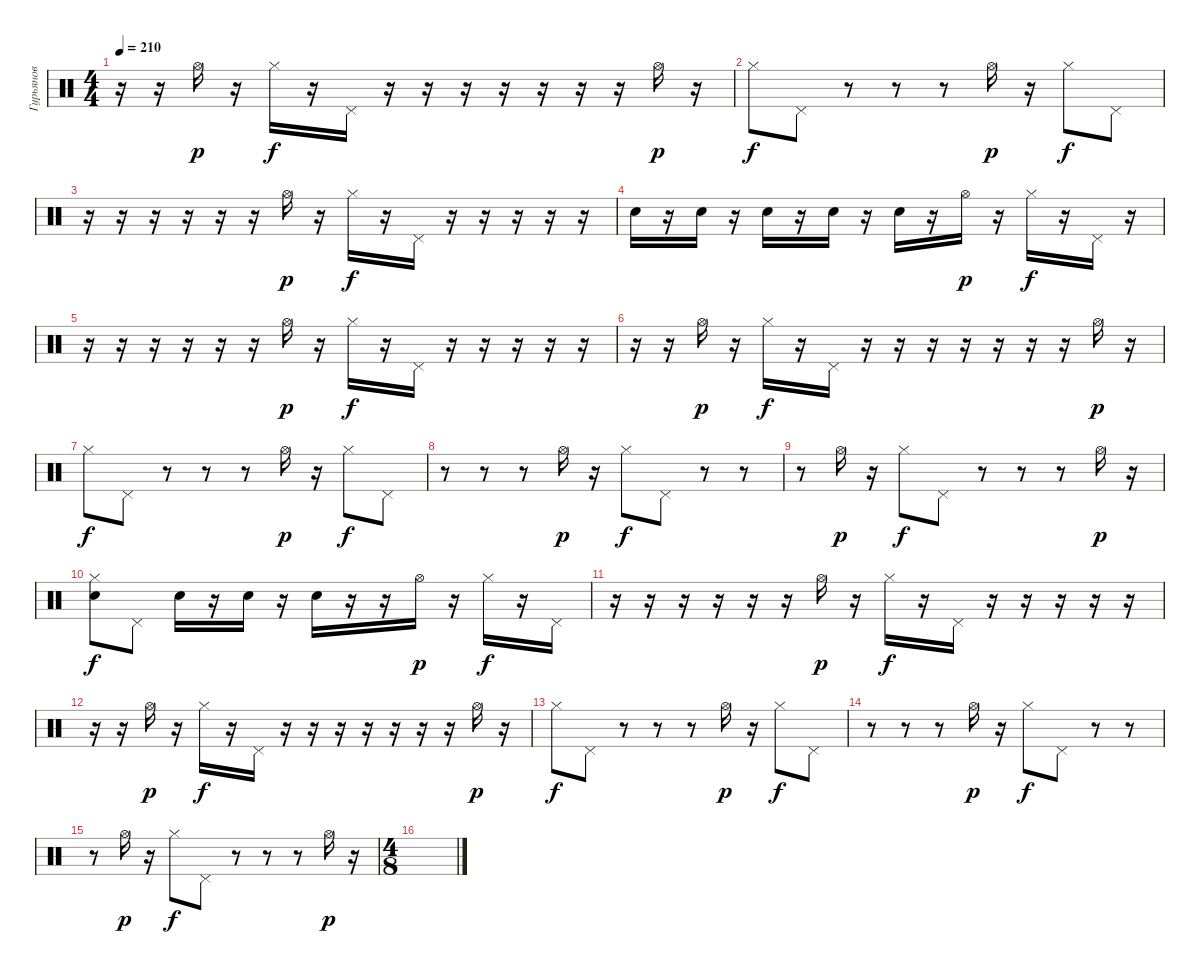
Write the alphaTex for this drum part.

\track ("Гурьянов" "Гурьянов") {instrument percussion}
\staff {score}
\articulation defaults
\ts (4 4)
\tempo 210
\clef neutral
\ks c
r.16{dy f} r.16 "Hi-Hat (open)".16{dy p} r.16 "Hi-Hat (closed)".16{dy f} r.16 "Pedal Hi-Hat (hit)".16 r.16 r.16 r.16 r.16 r.16 r.16 r.16 "Hi-Hat (open)".16{dy p} r.16 |
"Hi-Hat (closed)".8{dy f} "Pedal Hi-Hat (hit)".8 r.8 r.8 r.8 "Hi-Hat (open)".16{dy p} r.16 "Hi-Hat (closed)".8{dy f} "Pedal Hi-Hat (hit)".8 |
r.16 r.16 r.16 r.16 r.16 r.16 "Hi-Hat (open)".16{dy p} r.16 "Hi-Hat (closed)".16{dy f} r.16 "Pedal Hi-Hat (hit)".16 r.16 r.16 r.16 r.16 r.16 |
"Snare (hit) 2".16 r.16 "Snare (hit) 2".16 r.16 "Snare (hit) 2".16 r.16 "Snare (hit) 2".16 r.16 "Snare (hit) 2".16 r.16 "Hi-Hat (open)".16{dy p} r.16 "Hi-Hat (closed)".16{dy f} r.16 "Pedal Hi-Hat (hit)".16 r.16 |
r.16 r.16 r.16 r.16 r.16 r.16 "Hi-Hat (open)".16{dy p} r.16 "Hi-Hat (closed)".16{dy f} r.16 "Pedal Hi-Hat (hit)".16 r.16 r.16 r.16 r.16 r.16 |
r.16 r.16 "Hi-Hat (open)".16{dy p} r.16 "Hi-Hat (closed)".16{dy f} r.16 "Pedal Hi-Hat (hit)".16 r.16 r.16 r.16 r.16 r.16 r.16 r.16 "Hi-Hat (open)".16{dy p} r.16 |
"Hi-Hat (closed)".8{dy f} "Pedal Hi-Hat (hit)".8 r.8 r.8 r.8 "Hi-Hat (open)".16{dy p} r.16 "Hi-Hat (closed)".8{dy f} "Pedal Hi-Hat (hit)".8 |
r.8 r.8 r.8 "Hi-Hat (open)".16{dy p} r.16 "Hi-Hat (closed)".8{dy f} "Pedal Hi-Hat (hit)".8 r.8 r.8 |
r.8 "Hi-Hat (open)".16{dy p} r.16 "Hi-Hat (closed)".8{dy f} "Pedal Hi-Hat (hit)".8 r.8 r.8 r.8 "Hi-Hat (open)".16{dy p} r.16 |
("Snare (hit) 2" "Hi-Hat (closed)").8{dy f} "Pedal Hi-Hat (hit)".8 "Snare (hit) 2".16 r.16 "Snare (hit) 2".16 r.16 "Snare (hit) 2".16 r.16 r.16 "Hi-Hat (open)".16{dy p} r.16 "Hi-Hat (closed)".16{dy f} r.16 "Pedal Hi-Hat (hit)".16 |
r.16 r.16 r.16 r.16 r.16 r.16 "Hi-Hat (open)".16{dy p} r.16 "Hi-Hat (closed)".16{dy f} r.16 "Pedal Hi-Hat (hit)".16 r.16 r.16 r.16 r.16 r.16 |
r.16 r.16 "Hi-Hat (open)".16{dy p} r.16 "Hi-Hat (closed)".16{dy f} r.16 "Pedal Hi-Hat (hit)".16 r.16 r.16 r.16 r.16 r.16 r.16 r.16 "Hi-Hat (open)".16{dy p} r.16 |
"Hi-Hat (closed)".8{dy f} "Pedal Hi-Hat (hit)".8 r.8 r.8 r.8 "Hi-Hat (open)".16{dy p} r.16 "Hi-Hat (closed)".8{dy f} "Pedal Hi-Hat (hit)".8 |
r.8 r.8 r.8 "Hi-Hat (open)".16{dy p} r.16 "Hi-Hat (closed)".8{dy f} "Pedal Hi-Hat (hit)".8 r.8 r.8 |
r.8 "Hi-Hat (open)".16{dy p} r.16 "Hi-Hat (closed)".8{dy f} "Pedal Hi-Hat (hit)".8 r.8 r.8 r.8 "Hi-Hat (open)".16{dy p} r.16 |
\ts (4 8)
